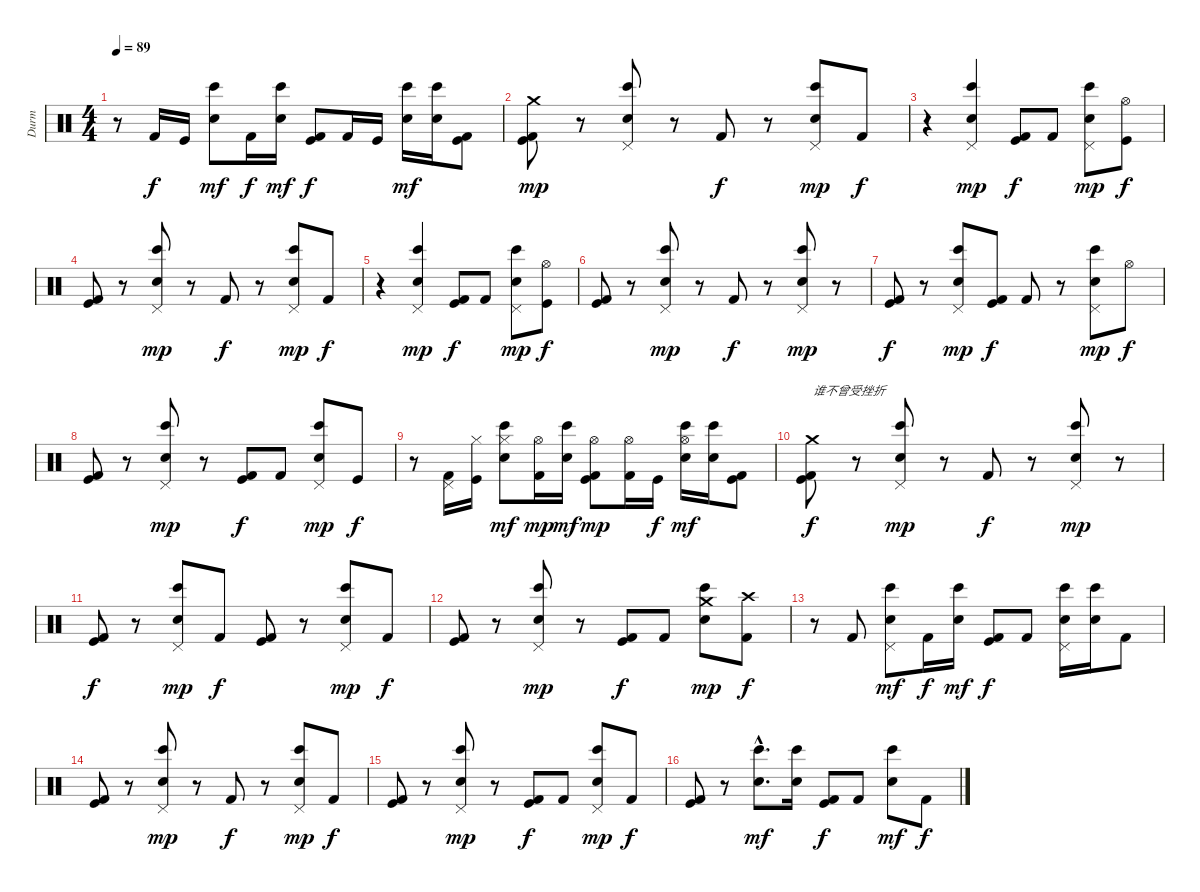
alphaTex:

\track ("Durm" "Durm") {instrument percussion}
\staff {score}
\articulation defaults
\ts (4 4)
\tempo 89
\clef neutral
\ks c
r.8{dy f} "Kick (hit) 2".16 "Kick (hit)".16 ("Electric Snare (hit)" "Bongo High (hit)").8{dy mf} "Kick (hit) 2".16{dy f} ("Bongo High (hit)" "Electric Snare (hit)").16{dy mf} ("Kick (hit) 2" "Kick (hit)").8{dy f} "Kick (hit) 2".16 "Kick (hit)".16 ("Bongo High (hit)" "Electric Snare (hit)").16{dy mf} ("Bongo High (hit)" "Electric Snare (hit)").16 ("Kick (hit) 2" "Kick (hit)").8 |
("Kick (hit)" "Kick (hit) 2" "Crash medium (hit)").8{dy mp} r.8 ("Pedal Hi-Hat (hit)" "Electric Snare (hit)" "Bongo High (hit)").8 r.8 "Kick (hit) 2".8{dy f} r.8 ("Pedal Hi-Hat (hit)" "Electric Snare (hit)" "Bongo High (hit)").8{dy mp} "Kick (hit) 2".8{dy f} |
r.4 ("Pedal Hi-Hat (hit)" "Electric Snare (hit)" "Bongo High (hit)").4{dy mp} ("Kick (hit) 2" "Kick (hit)").8{dy f} "Kick (hit) 2".8 ("Pedal Hi-Hat (hit)" "Electric Snare (hit)" "Bongo High (hit)").8{dy mp} ("Hi-Hat (open)" "Kick (hit)").8{dy f} |
("Kick (hit)" "Kick (hit) 2").8 r.8 ("Pedal Hi-Hat (hit)" "Electric Snare (hit)" "Bongo High (hit)").8{dy mp} r.8 "Kick (hit) 2".8{dy f} r.8 ("Pedal Hi-Hat (hit)" "Electric Snare (hit)" "Bongo High (hit)").8{dy mp} "Kick (hit) 2".8{dy f} |
r.4 ("Pedal Hi-Hat (hit)" "Electric Snare (hit)" "Bongo High (hit)").4{dy mp} ("Kick (hit) 2" "Kick (hit)").8{dy f} "Kick (hit) 2".8 ("Pedal Hi-Hat (hit)" "Electric Snare (hit)" "Bongo High (hit)").8{dy mp} ("Hi-Hat (open)" "Kick (hit)").8{dy f} |
("Kick (hit)" "Kick (hit) 2").8 r.8 ("Pedal Hi-Hat (hit)" "Electric Snare (hit)" "Bongo High (hit)").8{dy mp} r.8 "Kick (hit) 2".8{dy f} r.8 ("Pedal Hi-Hat (hit)" "Electric Snare (hit)" "Bongo High (hit)").8{dy mp} r.8 |
("Kick (hit)" "Kick (hit) 2").8{dy f} r.8 ("Pedal Hi-Hat (hit)" "Electric Snare (hit)" "Bongo High (hit)").8{dy mp} ("Kick (hit) 2" "Kick (hit)").8{dy f} "Kick (hit) 2".8 r.8 ("Pedal Hi-Hat (hit)" "Electric Snare (hit)" "Bongo High (hit)").8{dy mp} "Hi-Hat (open)".8{dy f} |
("Kick (hit)" "Kick (hit) 2").8 r.8 ("Pedal Hi-Hat (hit)" "Electric Snare (hit)" "Bongo High (hit)").8{dy mp} r.8 ("Kick (hit)" "Kick (hit) 2").8{dy f} "Kick (hit) 2".8 ("Pedal Hi-Hat (hit)" "Electric Snare (hit)" "Bongo High (hit)").8{dy mp} "Kick (hit)".8{dy f} |
r.8 ("Pedal Hi-Hat (hit)" "Kick (hit) 2").16 ("Hi-Hat (closed)" "Kick (hit)").16 ("Hi-Hat (closed)" "Electric Snare (hit)" "Bongo High (hit)").8{dy mf} ("Hi-Hat (open)" "Kick (hit) 2").16{dy mp} ("Bongo High (hit)" "Electric Snare (hit)").16{dy mf} ("Hi-Hat (open)" "Kick (hit) 2" "Kick (hit)").8{dy mp} ("Hi-Hat (open)" "Kick (hit) 2").16 "Kick (hit)".16{dy f} ("Hi-Hat (open)" "Bongo High (hit)" "Electric Snare (hit)").16{dy mf} ("Bongo High (hit)" "Electric Snare (hit)").16 ("Kick (hit) 2" "Kick (hit)").8 |
("Crash medium (hit)" "Kick (hit)" "Kick (hit) 2").8{txt "谁不曾受挫折" dy f} r.8 ("Pedal Hi-Hat (hit)" "Electric Snare (hit)" "Bongo High (hit)").8{dy mp} r.8 "Kick (hit) 2".8{dy f} r.8 ("Pedal Hi-Hat (hit)" "Electric Snare (hit)" "Bongo High (hit)").8{dy mp} r.8 |
("Kick (hit)" "Kick (hit) 2").8{dy f} r.8 ("Pedal Hi-Hat (hit)" "Electric Snare (hit)" "Bongo High (hit)").8{dy mp} "Kick (hit) 2".8{dy f} ("Kick (hit) 2" "Kick (hit)").8 r.8 ("Pedal Hi-Hat (hit)" "Electric Snare (hit)" "Bongo High (hit)").8{dy mp} "Kick (hit) 2".8{dy f} |
("Kick (hit)" "Kick (hit) 2").8 r.8 ("Pedal Hi-Hat (hit)" "Electric Snare (hit)" "Bongo High (hit)").8{dy mp} r.8 ("Kick (hit) 2" "Kick (hit)").8{dy f} "Kick (hit) 2".8 ("Crash medium (hit)" "Electric Snare (hit)" "Bongo High (hit)").8{dy mp} ("Crash high (hit)" "Kick (hit) 2").8{dy f} |
r.8 "Kick (hit) 2".8 ("Pedal Hi-Hat (hit)" "Bongo High (hit)" "Electric Snare (hit)").8{dy mf} "Kick (hit) 2".16{dy f} ("Bongo High (hit)" "Electric Snare (hit)").16{dy mf} ("Kick (hit) 2" "Kick (hit)").8{dy f} "Kick (hit) 2".8 ("Pedal Hi-Hat (hit)" "Bongo High (hit)" "Electric Snare (hit)").16 ("Bongo High (hit)" "Electric Snare (hit)").16 "Kick (hit) 2".8 |
("Kick (hit)" "Kick (hit) 2").8 r.8 ("Pedal Hi-Hat (hit)" "Electric Snare (hit)" "Bongo High (hit)").8{dy mp} r.8 "Kick (hit) 2".8{dy f} r.8 ("Pedal Hi-Hat (hit)" "Electric Snare (hit)" "Bongo High (hit)").8{dy mp} "Kick (hit) 2".8{dy f} |
("Kick (hit)" "Kick (hit) 2").8 r.8 ("Pedal Hi-Hat (hit)" "Electric Snare (hit)" "Bongo High (hit)").8{dy mp} r.8 ("Kick (hit) 2" "Kick (hit)").8{dy f} "Kick (hit) 2".8 ("Pedal Hi-Hat (hit)" "Electric Snare (hit)" "Bongo High (hit)").8{dy mp} "Kick (hit) 2".8{dy f} |
("Kick (hit)" "Kick (hit) 2").8 r.8 ("Electric Snare (hit)"{hac} "Bongo High (hit)"{hac}).8{d dy mf} ("Electric Snare (hit)" "Bongo High (hit)").16 ("Kick (hit)" "Kick (hit) 2").8{dy f} "Kick (hit) 2".8 ("Bongo High (hit)" "Electric Snare (hit)").8{dy mf} "Kick (hit) 2".8{dy f}
